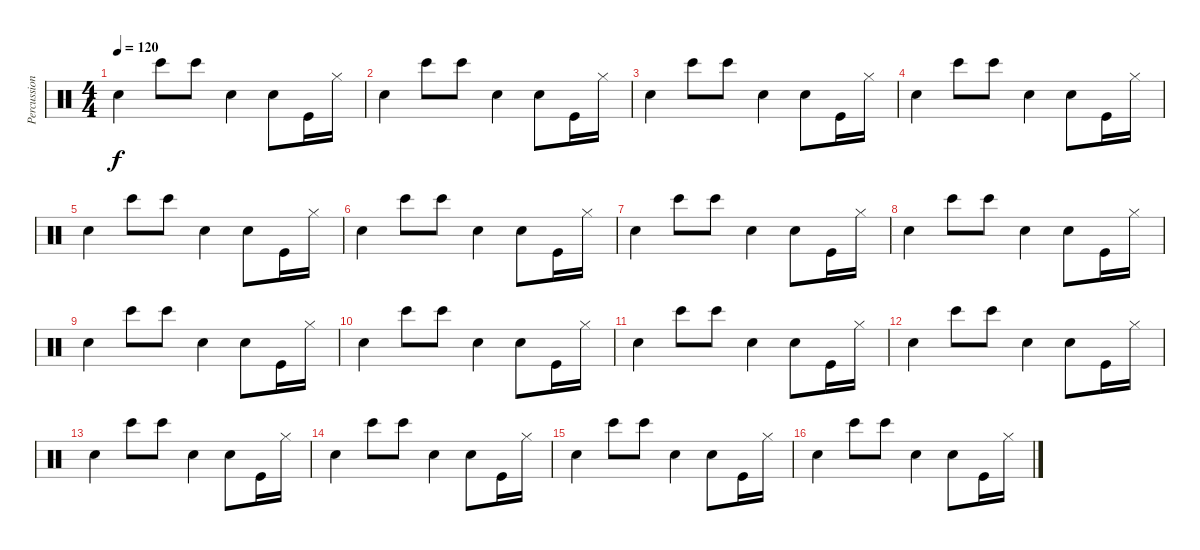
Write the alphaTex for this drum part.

\track ("Percussion" "Percussion") {instrument percussion}
\staff {score}
\articulation defaults
\ts (4 4)
\tempo 120
\clef neutral
\ks c "Electric Snare (hit)".4{dy f} "Bongo High (hit)".8 "Bongo High (hit)".8 "Electric Snare (hit)".4 "Snare (hit) 2".8 "Kick (hit)".16 "Hi-Hat (closed)".16
|
"Electric Snare (hit)".4 "Bongo High (hit)".8 "Bongo High (hit)".8 "Electric Snare (hit)".4 "Snare (hit) 2".8 "Kick (hit)".16 "Hi-Hat (closed)".16 |
"Electric Snare (hit)".4 "Bongo High (hit)".8 "Bongo High (hit)".8 "Electric Snare (hit)".4 "Snare (hit) 2".8 "Kick (hit)".16 "Hi-Hat (closed)".16 |
"Electric Snare (hit)".4 "Bongo High (hit)".8 "Bongo High (hit)".8 "Electric Snare (hit)".4 "Snare (hit) 2".8 "Kick (hit)".16 "Hi-Hat (closed)".16 |
"Electric Snare (hit)".4 "Bongo High (hit)".8 "Bongo High (hit)".8 "Electric Snare (hit)".4 "Snare (hit) 2".8 "Kick (hit)".16 "Hi-Hat (closed)".16 |
"Electric Snare (hit)".4 "Bongo High (hit)".8 "Bongo High (hit)".8 "Electric Snare (hit)".4 "Snare (hit) 2".8 "Kick (hit)".16 "Hi-Hat (closed)".16 |
"Electric Snare (hit)".4 "Bongo High (hit)".8 "Bongo High (hit)".8 "Electric Snare (hit)".4 "Snare (hit) 2".8 "Kick (hit)".16 "Hi-Hat (closed)".16 |
"Electric Snare (hit)".4 "Bongo High (hit)".8 "Bongo High (hit)".8 "Electric Snare (hit)".4 "Snare (hit) 2".8 "Kick (hit)".16 "Hi-Hat (closed)".16 |
"Electric Snare (hit)".4 "Bongo High (hit)".8 "Bongo High (hit)".8 "Electric Snare (hit)".4 "Snare (hit) 2".8 "Kick (hit)".16 "Hi-Hat (closed)".16 |
"Electric Snare (hit)".4 "Bongo High (hit)".8 "Bongo High (hit)".8 "Electric Snare (hit)".4 "Snare (hit) 2".8 "Kick (hit)".16 "Hi-Hat (closed)".16 |
"Electric Snare (hit)".4 "Bongo High (hit)".8 "Bongo High (hit)".8 "Electric Snare (hit)".4 "Snare (hit) 2".8 "Kick (hit)".16 "Hi-Hat (closed)".16 |
"Electric Snare (hit)".4 "Bongo High (hit)".8 "Bongo High (hit)".8 "Electric Snare (hit)".4 "Snare (hit) 2".8 "Kick (hit)".16 "Hi-Hat (closed)".16 |
"Electric Snare (hit)".4 "Bongo High (hit)".8 "Bongo High (hit)".8 "Electric Snare (hit)".4 "Snare (hit) 2".8 "Kick (hit)".16 "Hi-Hat (closed)".16 |
"Electric Snare (hit)".4 "Bongo High (hit)".8 "Bongo High (hit)".8 "Electric Snare (hit)".4 "Snare (hit) 2".8 "Kick (hit)".16 "Hi-Hat (closed)".16 |
"Electric Snare (hit)".4 "Bongo High (hit)".8 "Bongo High (hit)".8 "Electric Snare (hit)".4 "Snare (hit) 2".8 "Kick (hit)".16 "Hi-Hat (closed)".16 |
"Electric Snare (hit)".4 "Bongo High (hit)".8 "Bongo High (hit)".8 "Electric Snare (hit)".4 "Snare (hit) 2".8 "Kick (hit)".16 "Hi-Hat (closed)".16
